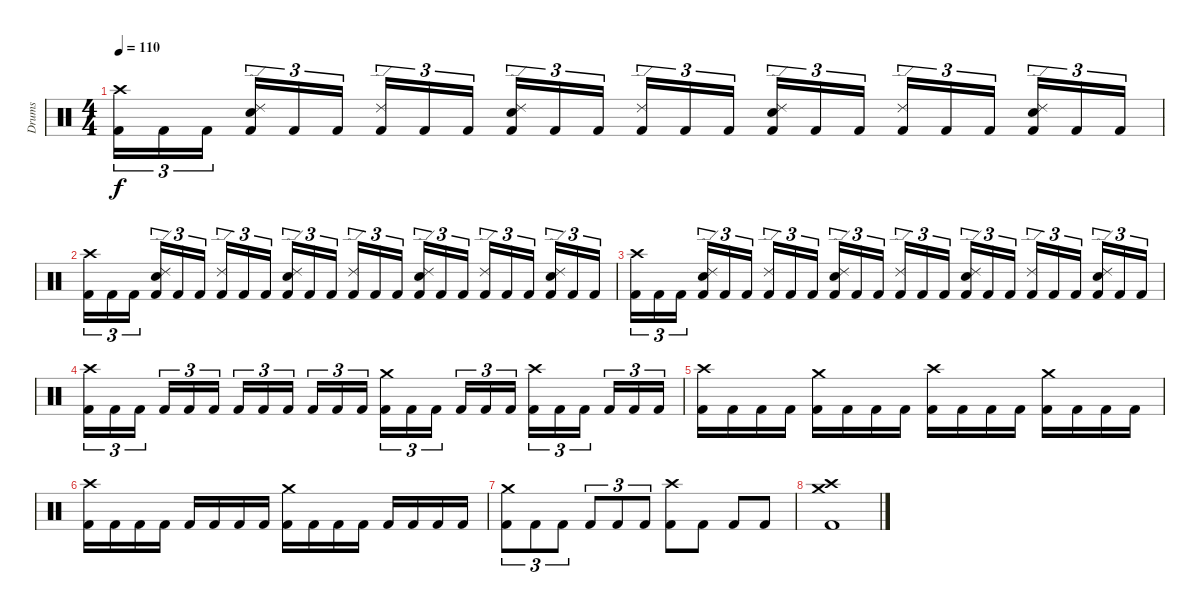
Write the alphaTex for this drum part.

\track ("Drums" "Drums") {instrument percussion}
\staff {score}
\articulation defaults
\ts (4 4)
\tempo 110
\clef neutral
\ks c
("Kick (hit) 2" "Crash high (hit)").16{tu (3 2) dy f} "Kick (hit) 2".16{tu (3 2)} "Kick (hit) 2".16{tu (3 2)} ("Kick (hit) 2" "Snare (hit) 2" "Ride (edge) 2").16{tu (3 2)} "Kick (hit) 2".16{tu (3 2)} "Kick (hit) 2".16{tu (3 2)} ("Kick (hit) 2" "Ride (edge) 2").16{tu (3 2)} "Kick (hit) 2".16{tu (3 2)} "Kick (hit) 2".16{tu (3 2)} ("Kick (hit) 2" "Snare (hit) 2" "Ride (edge) 2").16{tu (3 2)} "Kick (hit) 2".16{tu (3 2)} "Kick (hit) 2".16{tu (3 2)} ("Kick (hit) 2" "Ride (edge) 2").16{tu (3 2)} "Kick (hit) 2".16{tu (3 2)} "Kick (hit) 2".16{tu (3 2)} ("Kick (hit) 2" "Snare (hit) 2" "Ride (edge) 2").16{tu (3 2)} "Kick (hit) 2".16{tu (3 2)} "Kick (hit) 2".16{tu (3 2)} ("Kick (hit) 2" "Ride (edge) 2").16{tu (3 2)} "Kick (hit) 2".16{tu (3 2)} "Kick (hit) 2".16{tu (3 2)} ("Kick (hit) 2" "Snare (hit) 2" "Ride (edge) 2").16{tu (3 2)} "Kick (hit) 2".16{tu (3 2)} "Kick (hit) 2".16{tu (3 2)} |
("Kick (hit) 2" "Crash high (hit)").16{tu (3 2)} "Kick (hit) 2".16{tu (3 2)} "Kick (hit) 2".16{tu (3 2)} ("Kick (hit) 2" "Snare (hit) 2" "Ride (edge) 2").16{tu (3 2)} "Kick (hit) 2".16{tu (3 2)} "Kick (hit) 2".16{tu (3 2)} ("Kick (hit) 2" "Ride (edge) 2").16{tu (3 2)} "Kick (hit) 2".16{tu (3 2)} "Kick (hit) 2".16{tu (3 2)} ("Kick (hit) 2" "Snare (hit) 2" "Ride (edge) 2").16{tu (3 2)} "Kick (hit) 2".16{tu (3 2)} "Kick (hit) 2".16{tu (3 2)} ("Kick (hit) 2" "Ride (edge) 2").16{tu (3 2)} "Kick (hit) 2".16{tu (3 2)} "Kick (hit) 2".16{tu (3 2)} ("Kick (hit) 2" "Snare (hit) 2" "Ride (edge) 2").16{tu (3 2)} "Kick (hit) 2".16{tu (3 2)} "Kick (hit) 2".16{tu (3 2)} ("Kick (hit) 2" "Ride (edge) 2").16{tu (3 2)} "Kick (hit) 2".16{tu (3 2)} "Kick (hit) 2".16{tu (3 2)} ("Kick (hit) 2" "Snare (hit) 2" "Ride (edge) 2").16{tu (3 2)} "Kick (hit) 2".16{tu (3 2)} "Kick (hit) 2".16{tu (3 2)} |
("Kick (hit) 2" "Crash high (hit)").16{tu (3 2)} "Kick (hit) 2".16{tu (3 2)} "Kick (hit) 2".16{tu (3 2)} ("Kick (hit) 2" "Snare (hit) 2" "Ride (edge) 2").16{tu (3 2)} "Kick (hit) 2".16{tu (3 2)} "Kick (hit) 2".16{tu (3 2)} ("Kick (hit) 2" "Ride (edge) 2").16{tu (3 2)} "Kick (hit) 2".16{tu (3 2)} "Kick (hit) 2".16{tu (3 2)} ("Kick (hit) 2" "Snare (hit) 2" "Ride (edge) 2").16{tu (3 2)} "Kick (hit) 2".16{tu (3 2)} "Kick (hit) 2".16{tu (3 2)} ("Kick (hit) 2" "Ride (edge) 2").16{tu (3 2)} "Kick (hit) 2".16{tu (3 2)} "Kick (hit) 2".16{tu (3 2)} ("Kick (hit) 2" "Snare (hit) 2" "Ride (edge) 2").16{tu (3 2)} "Kick (hit) 2".16{tu (3 2)} "Kick (hit) 2".16{tu (3 2)} ("Kick (hit) 2" "Ride (edge) 2").16{tu (3 2)} "Kick (hit) 2".16{tu (3 2)} "Kick (hit) 2".16{tu (3 2)} ("Kick (hit) 2" "Snare (hit) 2" "Ride (edge) 2").16{tu (3 2)} "Kick (hit) 2".16{tu (3 2)} "Kick (hit) 2".16{tu (3 2)} |
("Kick (hit) 2" "Crash high (hit)").16{tu (3 2)} "Kick (hit) 2".16{tu (3 2)} "Kick (hit) 2".16{tu (3 2)} "Kick (hit) 2".16{tu (3 2)} "Kick (hit) 2".16{tu (3 2)} "Kick (hit) 2".16{tu (3 2)} "Kick (hit) 2".16{tu (3 2)} "Kick (hit) 2".16{tu (3 2)} "Kick (hit) 2".16{tu (3 2)} "Kick (hit) 2".16{tu (3 2)} "Kick (hit) 2".16{tu (3 2)} "Kick (hit) 2".16{tu (3 2)} ("Kick (hit) 2" "Crash medium (hit)").16{tu (3 2)} "Kick (hit) 2".16{tu (3 2)} "Kick (hit) 2".16{tu (3 2)} "Kick (hit) 2".16{tu (3 2)} "Kick (hit) 2".16{tu (3 2)} "Kick (hit) 2".16{tu (3 2)} ("Kick (hit) 2" "Crash high (hit)").16{tu (3 2)} "Kick (hit) 2".16{tu (3 2)} "Kick (hit) 2".16{tu (3 2)} "Kick (hit) 2".16{tu (3 2)} "Kick (hit) 2".16{tu (3 2)} "Kick (hit) 2".16{tu (3 2)} |
("Kick (hit) 2" "Crash high (hit)").16 "Kick (hit) 2".16 "Kick (hit) 2".16 "Kick (hit) 2".16 ("Kick (hit) 2" "Crash medium (hit)").16 "Kick (hit) 2".16 "Kick (hit) 2".16 "Kick (hit) 2".16 ("Kick (hit) 2" "Crash high (hit)").16 "Kick (hit) 2".16 "Kick (hit) 2".16 "Kick (hit) 2".16 ("Kick (hit) 2" "Crash medium (hit)").16 "Kick (hit) 2".16 "Kick (hit) 2".16 "Kick (hit) 2".16 |
("Kick (hit) 2" "Crash high (hit)").16 "Kick (hit) 2".16 "Kick (hit) 2".16 "Kick (hit) 2".16 "Kick (hit) 2".16 "Kick (hit) 2".16 "Kick (hit) 2".16 "Kick (hit) 2".16 ("Kick (hit) 2" "Crash medium (hit)").16 "Kick (hit) 2".16 "Kick (hit) 2".16 "Kick (hit) 2".16 "Kick (hit) 2".16 "Kick (hit) 2".16 "Kick (hit) 2".16 "Kick (hit) 2".16 |
("Kick (hit) 2" "Crash medium (hit)").8{tu (3 2)} "Kick (hit) 2".8{tu (3 2)} "Kick (hit) 2".8{tu (3 2)} "Kick (hit) 2".8{tu (3 2)} "Kick (hit) 2".8{tu (3 2)} "Kick (hit) 2".8{tu (3 2)} ("Kick (hit) 2" "Crash high (hit)").8 "Kick (hit) 2".8 "Kick (hit) 2".8 "Kick (hit) 2".8 |
("Kick (hit) 2" "Crash high (hit)" "Crash medium (hit)").1
